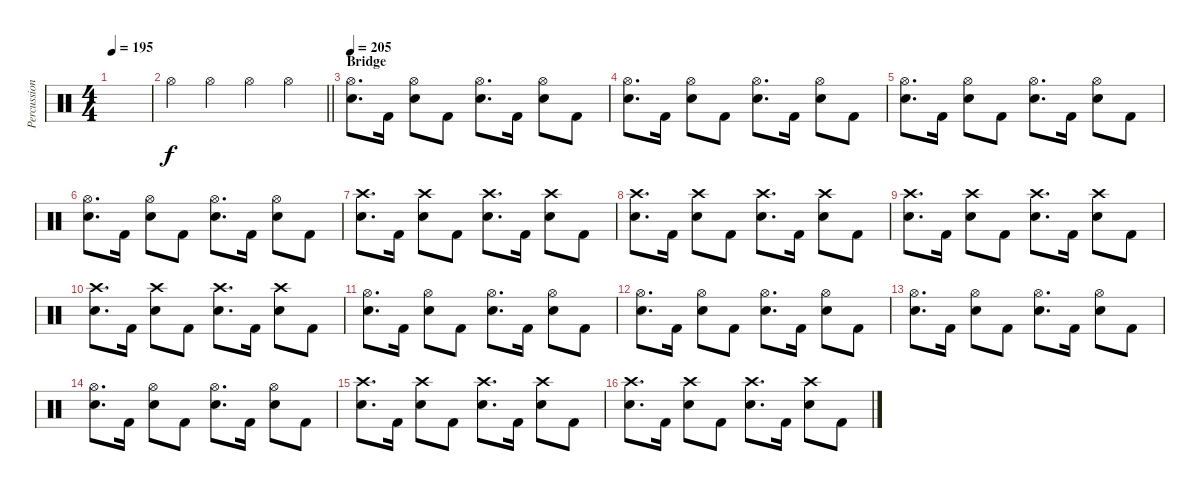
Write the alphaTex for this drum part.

\track ("Percussion" "Percussion") {instrument percussion}
\staff {score}
\articulation defaults
\ts (4 4)
\tempo 195
\clef neutral
\ks c
|
\barLineRight lightlight "Hi-Hat (open)".4 "Hi-Hat (open)".4 "Hi-Hat (open)".4 "Hi-Hat (open)".4
|
\section ("" "Bridge")
\tempo 205
("Hi-Hat (open)" "Snare (hit) 2").8{d} "Kick (hit) 2".16 ("Hi-Hat (open)" "Snare (hit) 2").8 "Kick (hit) 2".8 ("Hi-Hat (open)" "Snare (hit) 2").8{d} "Kick (hit) 2".16 ("Hi-Hat (open)" "Snare (hit) 2").8 "Kick (hit) 2".8 |
("Hi-Hat (open)" "Snare (hit) 2").8{d} "Kick (hit) 2".16 ("Hi-Hat (open)" "Snare (hit) 2").8 "Kick (hit) 2".8 ("Hi-Hat (open)" "Snare (hit) 2").8{d} "Kick (hit) 2".16 ("Hi-Hat (open)" "Snare (hit) 2").8 "Kick (hit) 2".8 |
("Hi-Hat (open)" "Snare (hit) 2").8{d} "Kick (hit) 2".16 ("Hi-Hat (open)" "Snare (hit) 2").8 "Kick (hit) 2".8 ("Hi-Hat (open)" "Snare (hit) 2").8{d} "Kick (hit) 2".16 ("Hi-Hat (open)" "Snare (hit) 2").8 "Kick (hit) 2".8 |
("Hi-Hat (open)" "Snare (hit) 2").8{d} "Kick (hit) 2".16 ("Hi-Hat (open)" "Snare (hit) 2").8 "Kick (hit) 2".8 ("Hi-Hat (open)" "Snare (hit) 2").8{d} "Kick (hit) 2".16 ("Hi-Hat (open)" "Snare (hit) 2").8 "Kick (hit) 2".8 |
("Crash high (hit)" "Snare (hit) 2").8{d} "Kick (hit) 2".16 ("Crash high (hit)" "Snare (hit) 2").8 "Kick (hit) 2".8 ("Crash high (hit)" "Snare (hit) 2").8{d} "Kick (hit) 2".16 ("Crash high (hit)" "Snare (hit) 2").8 "Kick (hit) 2".8 |
("Crash high (hit)" "Snare (hit) 2").8{d} "Kick (hit) 2".16 ("Crash high (hit)" "Snare (hit) 2").8 "Kick (hit) 2".8 ("Crash high (hit)" "Snare (hit) 2").8{d} "Kick (hit) 2".16 ("Crash high (hit)" "Snare (hit) 2").8 "Kick (hit) 2".8 |
("Crash high (hit)" "Snare (hit) 2").8{d} "Kick (hit) 2".16 ("Crash high (hit)" "Snare (hit) 2").8 "Kick (hit) 2".8 ("Crash high (hit)" "Snare (hit) 2").8{d} "Kick (hit) 2".16 ("Crash high (hit)" "Snare (hit) 2").8 "Kick (hit) 2".8 |
("Crash high (hit)" "Snare (hit) 2").8{d} "Kick (hit) 2".16 ("Crash high (hit)" "Snare (hit) 2").8 "Kick (hit) 2".8 ("Crash high (hit)" "Snare (hit) 2").8{d} "Kick (hit) 2".16 ("Crash high (hit)" "Snare (hit) 2").8 "Kick (hit) 2".8 |
("Hi-Hat (open)" "Snare (hit) 2").8{d} "Kick (hit) 2".16 ("Hi-Hat (open)" "Snare (hit) 2").8 "Kick (hit) 2".8 ("Hi-Hat (open)" "Snare (hit) 2").8{d} "Kick (hit) 2".16 ("Hi-Hat (open)" "Snare (hit) 2").8 "Kick (hit) 2".8 |
("Hi-Hat (open)" "Snare (hit) 2").8{d} "Kick (hit) 2".16 ("Hi-Hat (open)" "Snare (hit) 2").8 "Kick (hit) 2".8 ("Hi-Hat (open)" "Snare (hit) 2").8{d} "Kick (hit) 2".16 ("Hi-Hat (open)" "Snare (hit) 2").8 "Kick (hit) 2".8 |
("Hi-Hat (open)" "Snare (hit) 2").8{d} "Kick (hit) 2".16 ("Hi-Hat (open)" "Snare (hit) 2").8 "Kick (hit) 2".8 ("Hi-Hat (open)" "Snare (hit) 2").8{d} "Kick (hit) 2".16 ("Hi-Hat (open)" "Snare (hit) 2").8 "Kick (hit) 2".8 |
("Hi-Hat (open)" "Snare (hit) 2").8{d} "Kick (hit) 2".16 ("Hi-Hat (open)" "Snare (hit) 2").8 "Kick (hit) 2".8 ("Hi-Hat (open)" "Snare (hit) 2").8{d} "Kick (hit) 2".16 ("Hi-Hat (open)" "Snare (hit) 2").8 "Kick (hit) 2".8 |
("Crash high (hit)" "Snare (hit) 2").8{d} "Kick (hit) 2".16 ("Crash high (hit)" "Snare (hit) 2").8 "Kick (hit) 2".8 ("Crash high (hit)" "Snare (hit) 2").8{d} "Kick (hit) 2".16 ("Crash high (hit)" "Snare (hit) 2").8 "Kick (hit) 2".8 |
("Crash high (hit)" "Snare (hit) 2").8{d} "Kick (hit) 2".16 ("Crash high (hit)" "Snare (hit) 2").8 "Kick (hit) 2".8 ("Crash high (hit)" "Snare (hit) 2").8{d} "Kick (hit) 2".16 ("Crash high (hit)" "Snare (hit) 2").8 "Kick (hit) 2".8
